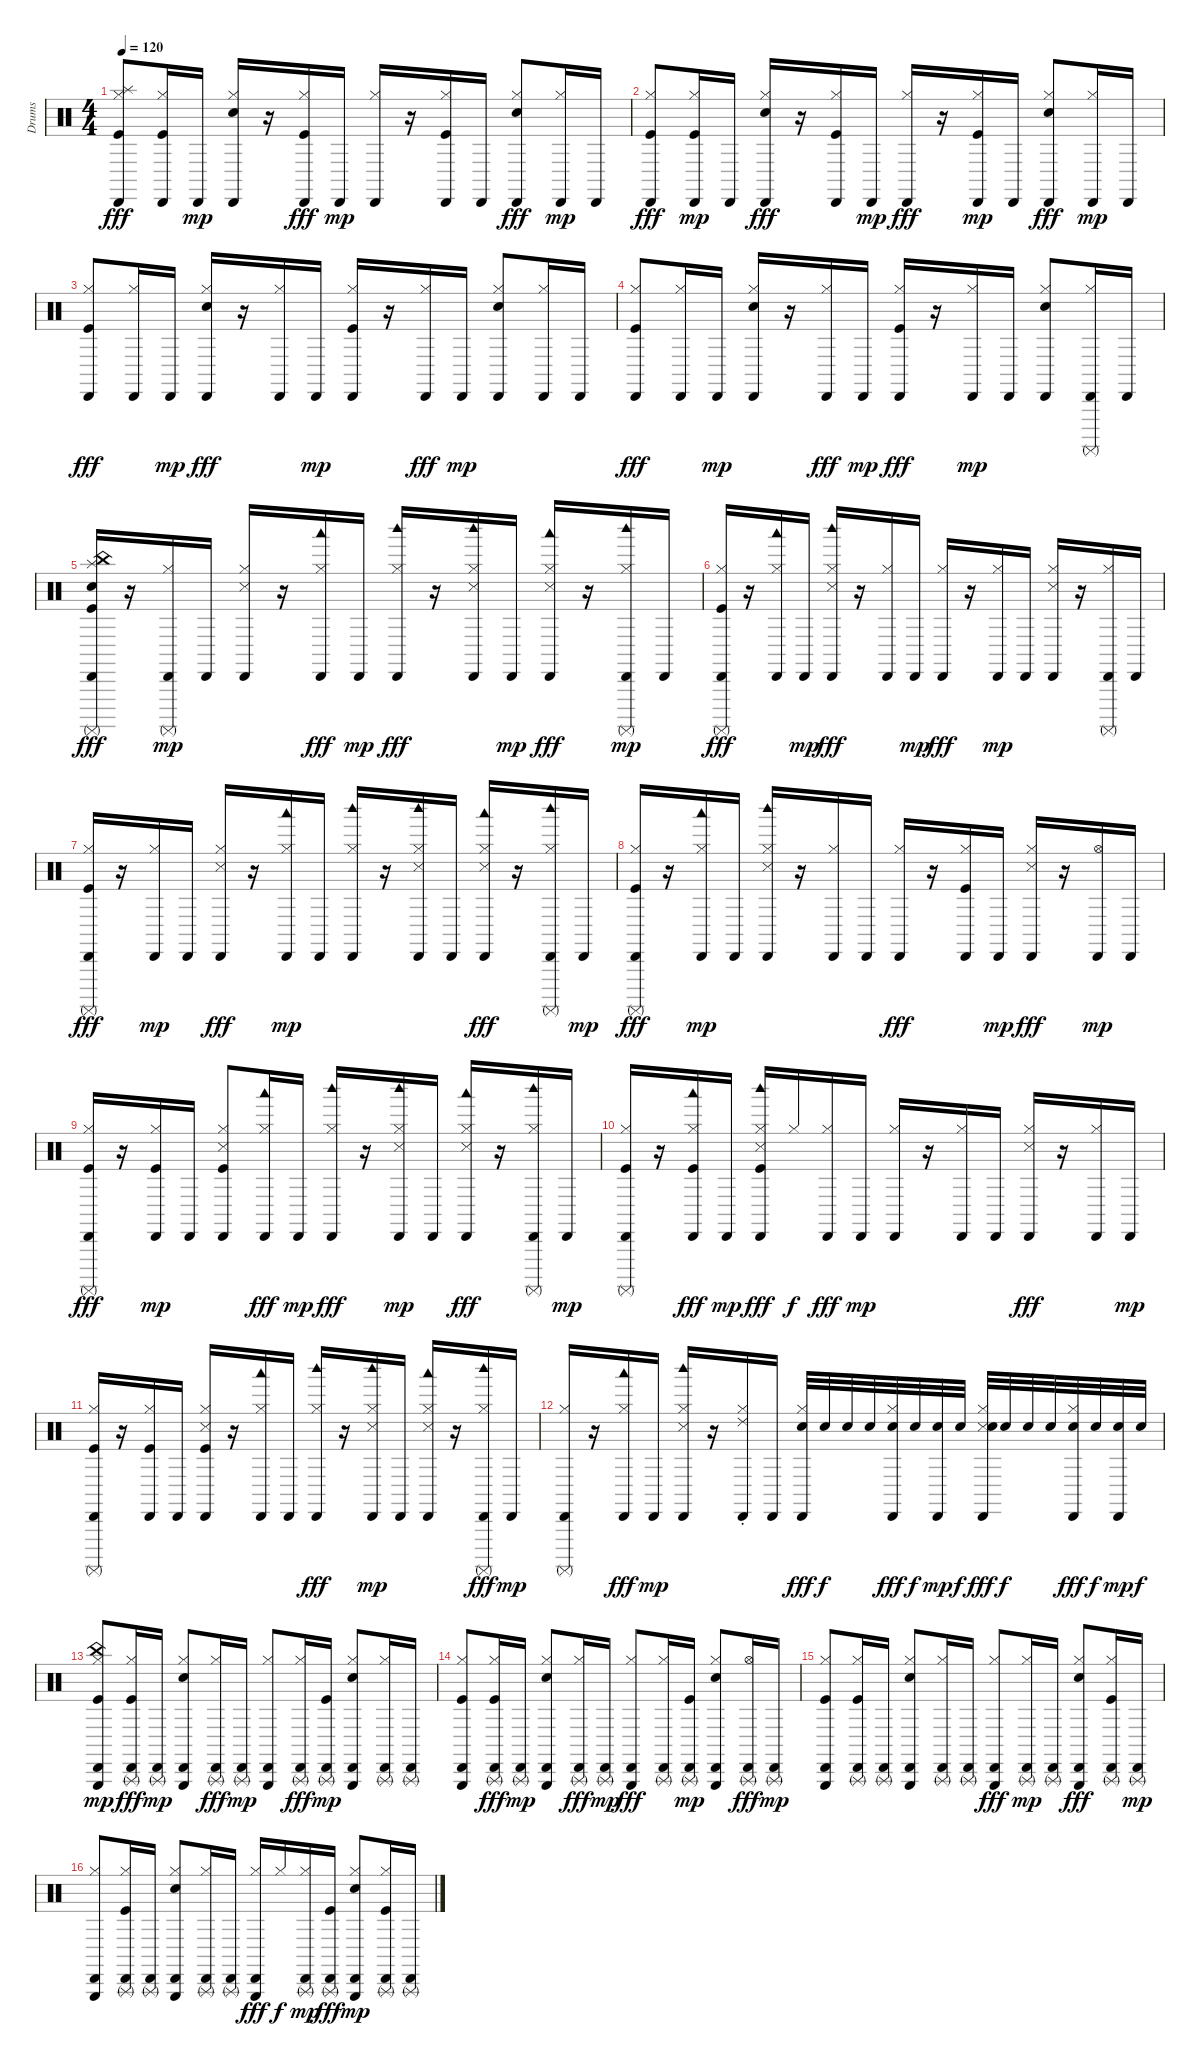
\track ("Drums" "Drums") {instrument percussion}
\staff {score}
\articulation defaults
\ts (4 4)
\tempo 120
\clef neutral
\ks c
("Splash (hit)" "Kick (hit)" "Cabasa (hit)" "Hi-Hat (closed)").8{dy fff} ("Kick (hit)" "Cabasa (hit)" "Hi-Hat (closed)").16 "Cabasa (hit)".16{dy mp} ("Snare (hit) 2" "Hi-Hat (closed)" "Cabasa (hit)").16 r.16 ("Hi-Hat (closed)" "Cabasa (hit)" "Kick (hit)").16{dy fff} "Cabasa (hit)".16{dy mp} ("Hi-Hat (closed)" "Cabasa (hit)").16 r.16 ("Hi-Hat (closed)" "Kick (hit)" "Cabasa (hit)").16 "Cabasa (hit)".16 ("Cabasa (hit)" "Snare (hit) 2" "Hi-Hat (closed)").8{dy fff} ("Hi-Hat (closed)" "Cabasa (hit)").16{dy mp} "Cabasa (hit)".16 |
("Cabasa (hit)" "Kick (hit)" "Hi-Hat (closed)").8{dy fff} ("Hi-Hat (closed)" "Kick (hit)" "Cabasa (hit)").16{dy mp} "Cabasa (hit)".16 ("Cabasa (hit)" "Hi-Hat (closed)" "Snare (hit) 2").16{dy fff} r.16 ("Cabasa (hit)" "Hi-Hat (closed)" "Kick (hit)").16 "Cabasa (hit)".16{dy mp} ("Cabasa (hit)" "Hi-Hat (closed)").16{dy fff} r.16 ("Hi-Hat (closed)" "Kick (hit)" "Cabasa (hit)").16{dy mp} "Cabasa (hit)".16 ("Cabasa (hit)" "Snare (hit) 2" "Hi-Hat (closed)").8{dy fff} ("Hi-Hat (closed)" "Cabasa (hit)").16{dy mp} "Cabasa (hit)".16 |
("Cabasa (hit)" "Kick (hit)" "Hi-Hat (closed)").8{dy fff} ("Cabasa (hit)" "Hi-Hat (closed)").16 "Cabasa (hit)".16{dy mp} ("Snare (hit) 2" "Cabasa (hit)" "Hi-Hat (closed)").16{dy fff} r.16 ("Cabasa (hit)" "Hi-Hat (closed)").16 "Cabasa (hit)".16{dy mp} ("Hi-Hat (closed)" "Kick (hit)" "Cabasa (hit)").16 r.16 ("Cabasa (hit)" "Hi-Hat (closed)").16{dy fff} "Cabasa (hit)".16{dy mp} ("Hi-Hat (closed)" "Cabasa (hit)" "Snare (hit) 2").8 ("Hi-Hat (closed)" "Cabasa (hit)").16 "Cabasa (hit)".16 |
("Kick (hit)" "Cabasa (hit)" "Hi-Hat (closed)").8{dy fff} ("Cabasa (hit)" "Hi-Hat (closed)").16 "Cabasa (hit)".16{dy mp} ("Hi-Hat (closed)" "Snare (hit) 2" "Cabasa (hit)").16 r.16 ("Cabasa (hit)" "Hi-Hat (closed)").16{dy fff} "Cabasa (hit)".16{dy mp} ("Cabasa (hit)" "Kick (hit)" "Hi-Hat (closed)").16{dy fff} r.16 ("Hi-Hat (closed)" "Cabasa (hit)").16{dy mp} "Cabasa (hit)".16 ("Hi-Hat (closed)" "Cabasa (hit)" "Snare (hit) 2").8 ("Surdo (mute)" "Hi-Hat (closed)" "Cabasa (hit)").16 "Cabasa (hit)".16 |
("Cabasa (hit)" "Electric Snare (hit)" "Kick (hit)" "Surdo (mute)" "China (hit)" "Splash (hit)").16{dy fff} r.16 ("Surdo (mute)" "Hi-Hat (closed)" "Cabasa (hit)").16{dy mp} "Cabasa (hit)".16 ("Hi-Hat (closed)" "Cabasa (hit)" "Snare (side stick) 3").16 r.16 ("Hi-Hat (closed)" "Cabasa (hit)" "Woodblock low (hit)").16{dy fff} "Cabasa (hit)".16{dy mp} ("Cabasa (hit)" "Woodblock high (hit)" "Hi-Hat (closed)").16{dy fff} r.16 ("Cabasa (hit)" "Snare (side stick) 3" "Woodblock high (hit)" "Hi-Hat (closed)").16 "Cabasa (hit)".16{dy mp} ("Woodblock low (hit)" "Snare (side stick) 3" "Cabasa (hit)" "Hi-Hat (closed)").16{dy fff} r.16 ("Woodblock high (hit)" "Hi-Hat (closed)" "Surdo (mute)" "Cabasa (hit)").16{dy mp} "Cabasa (hit)".16 |
("Kick (hit)" "Surdo (mute)" "Cabasa (hit)" "Hi-Hat (closed)").16{dy fff} r.16 ("Cabasa (hit)" "Hi-Hat (closed)" "Woodblock low (hit)").16 "Cabasa (hit)".16{dy mp} ("Woodblock high (hit)" "Cabasa (hit)" "Snare (side stick) 3" "Hi-Hat (closed)").16{dy fff} r.16 ("Cabasa (hit)" "Hi-Hat (closed)").16 "Cabasa (hit)".16{dy mp} ("Cabasa (hit)" "Hi-Hat (closed)").16{dy fff} r.16 ("Hi-Hat (closed)" "Cabasa (hit)").16{dy mp} "Cabasa (hit)".16 ("Hi-Hat (closed)" "Cabasa (hit)" "Snare (side stick) 3").16 r.16 ("Hi-Hat (closed)" "Surdo (mute)" "Cabasa (hit)").16 "Cabasa (hit)".16 |
("Surdo (mute)" "Cabasa (hit)" "Kick (hit)" "Hi-Hat (closed)").16{dy fff} r.16 ("Hi-Hat (closed)" "Cabasa (hit)").16{dy mp} "Cabasa (hit)".16 ("Snare (side stick) 3" "Cabasa (hit)" "Hi-Hat (closed)").16{dy fff} r.16 ("Woodblock low (hit)" "Hi-Hat (closed)" "Cabasa (hit)").16{dy mp} "Cabasa (hit)".16 ("Woodblock high (hit)" "Hi-Hat (closed)" "Cabasa (hit)").16 r.16 ("Snare (side stick) 3" "Woodblock high (hit)" "Hi-Hat (closed)" "Cabasa (hit)").16 "Cabasa (hit)".16 ("Cabasa (hit)" "Snare (side stick) 3" "Hi-Hat (closed)" "Woodblock low (hit)").16{dy fff} r.16 ("Hi-Hat (closed)" "Cabasa (hit)" "Woodblock high (hit)" "Surdo (mute)").16 "Cabasa (hit)".16{dy mp} |
("Surdo (mute)" "Hi-Hat (closed)" "Cabasa (hit)" "Kick (hit)").16{dy fff} r.16 ("Hi-Hat (closed)" "Woodblock low (hit)" "Cabasa (hit)").16{dy mp} "Cabasa (hit)".16 ("Woodblock high (hit)" "Snare (side stick) 3" "Hi-Hat (closed)" "Cabasa (hit)").16 r.16 ("Hi-Hat (closed)" "Cabasa (hit)").16 "Cabasa (hit)".16 ("Cabasa (hit)" "Hi-Hat (closed)").16{dy fff} r.16 ("Cabasa (hit)" "Hi-Hat (closed)" "Kick (hit)").16 "Cabasa (hit)".16{dy mp} ("Cabasa (hit)" "Snare (side stick) 3" "Hi-Hat (closed)").16{dy fff} r.16 ("Hi-Hat (open)" "Cabasa (hit)").16{dy mp} "Cabasa (hit)".16 |
("Cabasa (hit)" "Surdo (mute)" "Kick (hit)" "Hi-Hat (closed)").16{dy fff} r.16 ("Hi-Hat (closed)" "Kick (hit)" "Cabasa (hit)").16{dy mp} "Cabasa (hit)".16 ("Kick (hit)" "Hi-Hat (closed)" "Cabasa (hit)" "Snare (side stick) 3").8 ("Hi-Hat (closed)" "Cabasa (hit)" "Woodblock low (hit)").16{dy fff} "Cabasa (hit)".16{dy mp} ("Cabasa (hit)" "Hi-Hat (closed)" "Woodblock high (hit)").16{dy fff} r.16 ("Snare (side stick) 3" "Hi-Hat (closed)" "Woodblock high (hit)" "Cabasa (hit)").16{dy mp} "Cabasa (hit)".16 ("Cabasa (hit)" "Hi-Hat (closed)" "Woodblock low (hit)" "Snare (side stick) 3").16{dy fff} r.16 ("Cabasa (hit)" "Surdo (mute)" "Hi-Hat (closed)" "Woodblock high (hit)").16 "Cabasa (hit)".16{dy mp} |
("Hi-Hat (closed)" "Surdo (mute)" "Cabasa (hit)" "Kick (hit)").16 r.16 ("Kick (hit)" "Hi-Hat (closed)" "Cabasa (hit)" "Woodblock low (hit)").16{dy fff} "Cabasa (hit)".16{dy mp} ("Cabasa (hit)" "Woodblock high (hit)" "Snare (side stick) 3" "Hi-Hat (closed)" "Kick (hit)").16{dy fff} "Hi-Hat (closed)".16{dy f} ("Cabasa (hit)" "Hi-Hat (closed)").16{dy fff} "Cabasa (hit)".16{dy mp} ("Hi-Hat (closed)" "Cabasa (hit)").16 r.16 ("Hi-Hat (closed)" "Cabasa (hit)").16 "Cabasa (hit)".16 ("Cabasa (hit)" "Hi-Hat (closed)" "Snare (side stick) 3").16{dy fff} r.16 ("Cabasa (hit)" "Hi-Hat (closed)").16 "Cabasa (hit)".16{dy mp} |
("Hi-Hat (closed)" "Surdo (mute)" "Cabasa (hit)" "Kick (hit)").16 r.16 ("Hi-Hat (closed)" "Cabasa (hit)" "Kick (hit)").16 "Cabasa (hit)".16 ("Kick (hit)" "Hi-Hat (closed)" "Snare (side stick) 3" "Cabasa (hit)").16 r.16 ("Woodblock low (hit)" "Hi-Hat (closed)" "Cabasa (hit)").16 "Cabasa (hit)".16 ("Cabasa (hit)" "Woodblock high (hit)" "Hi-Hat (closed)").16{dy fff} r.16 ("Hi-Hat (closed)" "Woodblock high (hit)" "Cabasa (hit)" "Snare (side stick) 3").16{dy mp} "Cabasa (hit)".16 ("Hi-Hat (closed)" "Woodblock low (hit)" "Cabasa (hit)" "Snare (side stick) 3").16 r.16 ("Surdo (mute)" "Hi-Hat (closed)" "Cabasa (hit)" "Woodblock high (hit)").16{dy fff} "Cabasa (hit)".16{dy mp} |
("Surdo (mute)" "Hi-Hat (closed)" "Cabasa (hit)").16 r.16 ("Cabasa (hit)" "Woodblock low (hit)" "Hi-Hat (closed)").16{dy fff} "Cabasa (hit)".16{dy mp} ("Woodblock high (hit)" "Snare (side stick) 3" "Hi-Hat (closed)" "Cabasa (hit)").16 r.16 ("Hi-Hat (closed)" "Ride (choke) 2" "Cabasa (hit)").16 "Cabasa (hit)".16 ("Cabasa (hit)" "Hi-Hat (closed)" "Electric Snare (hit)").32{dy fff} "Electric Snare (hit)".32{dy f} "Electric Snare (hit)".32 "Electric Snare (hit)".32 ("Cabasa (hit)" "Electric Snare (hit)" "Hi-Hat (closed)").32{dy fff} "Electric Snare (hit)".32{dy f} ("Cabasa (hit)" "Electric Snare (hit)").32{dy mp} "Electric Snare (hit)".32{dy f} ("Cabasa (hit)" "Snare (side stick) 3" "Electric Snare (hit)" "Hi-Hat (closed)").32{dy fff} "Electric Snare (hit)".32{dy f} "Electric Snare (hit)".32 "Electric Snare (hit)".32 ("Electric Snare (hit)" "Cabasa (hit)" "Hi-Hat (closed)").32{dy fff} "Electric Snare (hit)".32{dy f} ("Electric Snare (hit)" "Cabasa (hit)").32{dy mp} "Electric Snare (hit)".32{dy f} |
("Triangle (hit)" "China (hit)" "Hi-Hat (closed)" "Kick (hit)" "Cabasa (hit)").8{dy mp} ("Triangle (rnute)" "Kick (hit)" "Cabasa (hit)" "Hi-Hat (closed)").16{dy fff} ("Triangle (rnute)" "Cabasa (hit)").16{dy mp} ("Hi-Hat (closed)" "Cabasa (hit)" "Snare (hit) 2" "Triangle (hit)").8 ("Cabasa (hit)" "Triangle (rnute)" "Hi-Hat (closed)").16{dy fff} ("Triangle (rnute)" "Cabasa (hit)").16{dy mp} ("Hi-Hat (closed)" "Cabasa (hit)" "Triangle (hit)").8 ("Cabasa (hit)" "Triangle (rnute)" "Hi-Hat (closed)").16{dy fff} ("Triangle (rnute)" "Kick (hit)" "Cabasa (hit)").16{dy mp} ("Hi-Hat (closed)" "Snare (hit) 2" "Cabasa (hit)" "Triangle (hit)").8 ("Hi-Hat (closed)" "Triangle (rnute)" "Cabasa (hit)").16 ("Triangle (rnute)" "Cabasa (hit)").16 |
("Hi-Hat (closed)" "Cabasa (hit)" "Kick (hit)" "Triangle (hit)").8 ("Cabasa (hit)" "Hi-Hat (closed)" "Triangle (rnute)" "Kick (hit)").16{dy fff} ("Triangle (rnute)" "Cabasa (hit)").16{dy mp} ("Hi-Hat (closed)" "Triangle (hit)" "Cabasa (hit)" "Snare (hit) 2").8 ("Cabasa (hit)" "Triangle (rnute)" "Hi-Hat (closed)").16{dy fff} ("Triangle (rnute)" "Cabasa (hit)").16{dy mp} ("Cabasa (hit)" "Triangle (hit)" "Hi-Hat (closed)").8{dy fff} ("Triangle (rnute)" "Cabasa (hit)" "Hi-Hat (closed)").16 ("Cabasa (hit)" "Kick (hit)" "Triangle (rnute)").16{dy mp} ("Hi-Hat (closed)" "Triangle (hit)" "Cabasa (hit)" "Snare (hit) 2").8 ("Triangle (rnute)" "Cabasa (hit)" "Hi-Hat (open)").16{dy fff} ("Cabasa (hit)" "Triangle (rnute)").16{dy mp} |
("Kick (hit)" "Hi-Hat (closed)" "Cabasa (hit)" "Triangle (hit)").8 ("Hi-Hat (closed)" "Kick (hit)" "Cabasa (hit)" "Triangle (rnute)").16 ("Cabasa (hit)" "Triangle (rnute)").16 ("Triangle (hit)" "Hi-Hat (closed)" "Cabasa (hit)" "Snare (hit) 2").8 ("Cabasa (hit)" "Hi-Hat (closed)" "Triangle (rnute)").16 ("Cabasa (hit)" "Triangle (rnute)").16 ("Triangle (hit)" "Cabasa (hit)" "Hi-Hat (closed)").8{dy fff} ("Hi-Hat (closed)" "Triangle (rnute)" "Cabasa (hit)").16{dy mp} ("Triangle (rnute)" "Cabasa (hit)").16 ("Cabasa (hit)" "Triangle (hit)" "Snare (hit) 2" "Hi-Hat (closed)").8{dy fff} ("Triangle (rnute)" "Cabasa (hit)" "Kick (hit)" "Hi-Hat (closed)").16 ("Cabasa (hit)" "Triangle (rnute)").16{dy mp} |
("Cabasa (hit)" "Hi-Hat (closed)" "Triangle (hit)").8 ("Hi-Hat (closed)" "Kick (hit)" "Triangle (rnute)" "Cabasa (hit)").16 ("Triangle (rnute)" "Cabasa (hit)").16 ("Cabasa (hit)" "Snare (hit) 2" "Hi-Hat (closed)" "Triangle (hit)").8 ("Hi-Hat (closed)" "Cabasa (hit)" "Triangle (rnute)").16 ("Triangle (rnute)" "Cabasa (hit)").16 ("Triangle (hit)" "Cabasa (hit)" "Hi-Hat (closed)").16{dy fff} "Hi-Hat (closed)".16{dy f} ("Cabasa (hit)" "Hi-Hat (closed)" "Triangle (rnute)").16{dy mp} ("Cabasa (hit)" "Triangle (rnute)" "Kick (hit)").16{dy fff} ("Hi-Hat (closed)" "Snare (hit) 2" "Cabasa (hit)" "Triangle (hit)").8{dy mp} ("Kick (hit)" "Cabasa (hit)" "Hi-Hat (closed)" "Triangle (rnute)").16 ("Triangle (rnute)" "Cabasa (hit)").16
